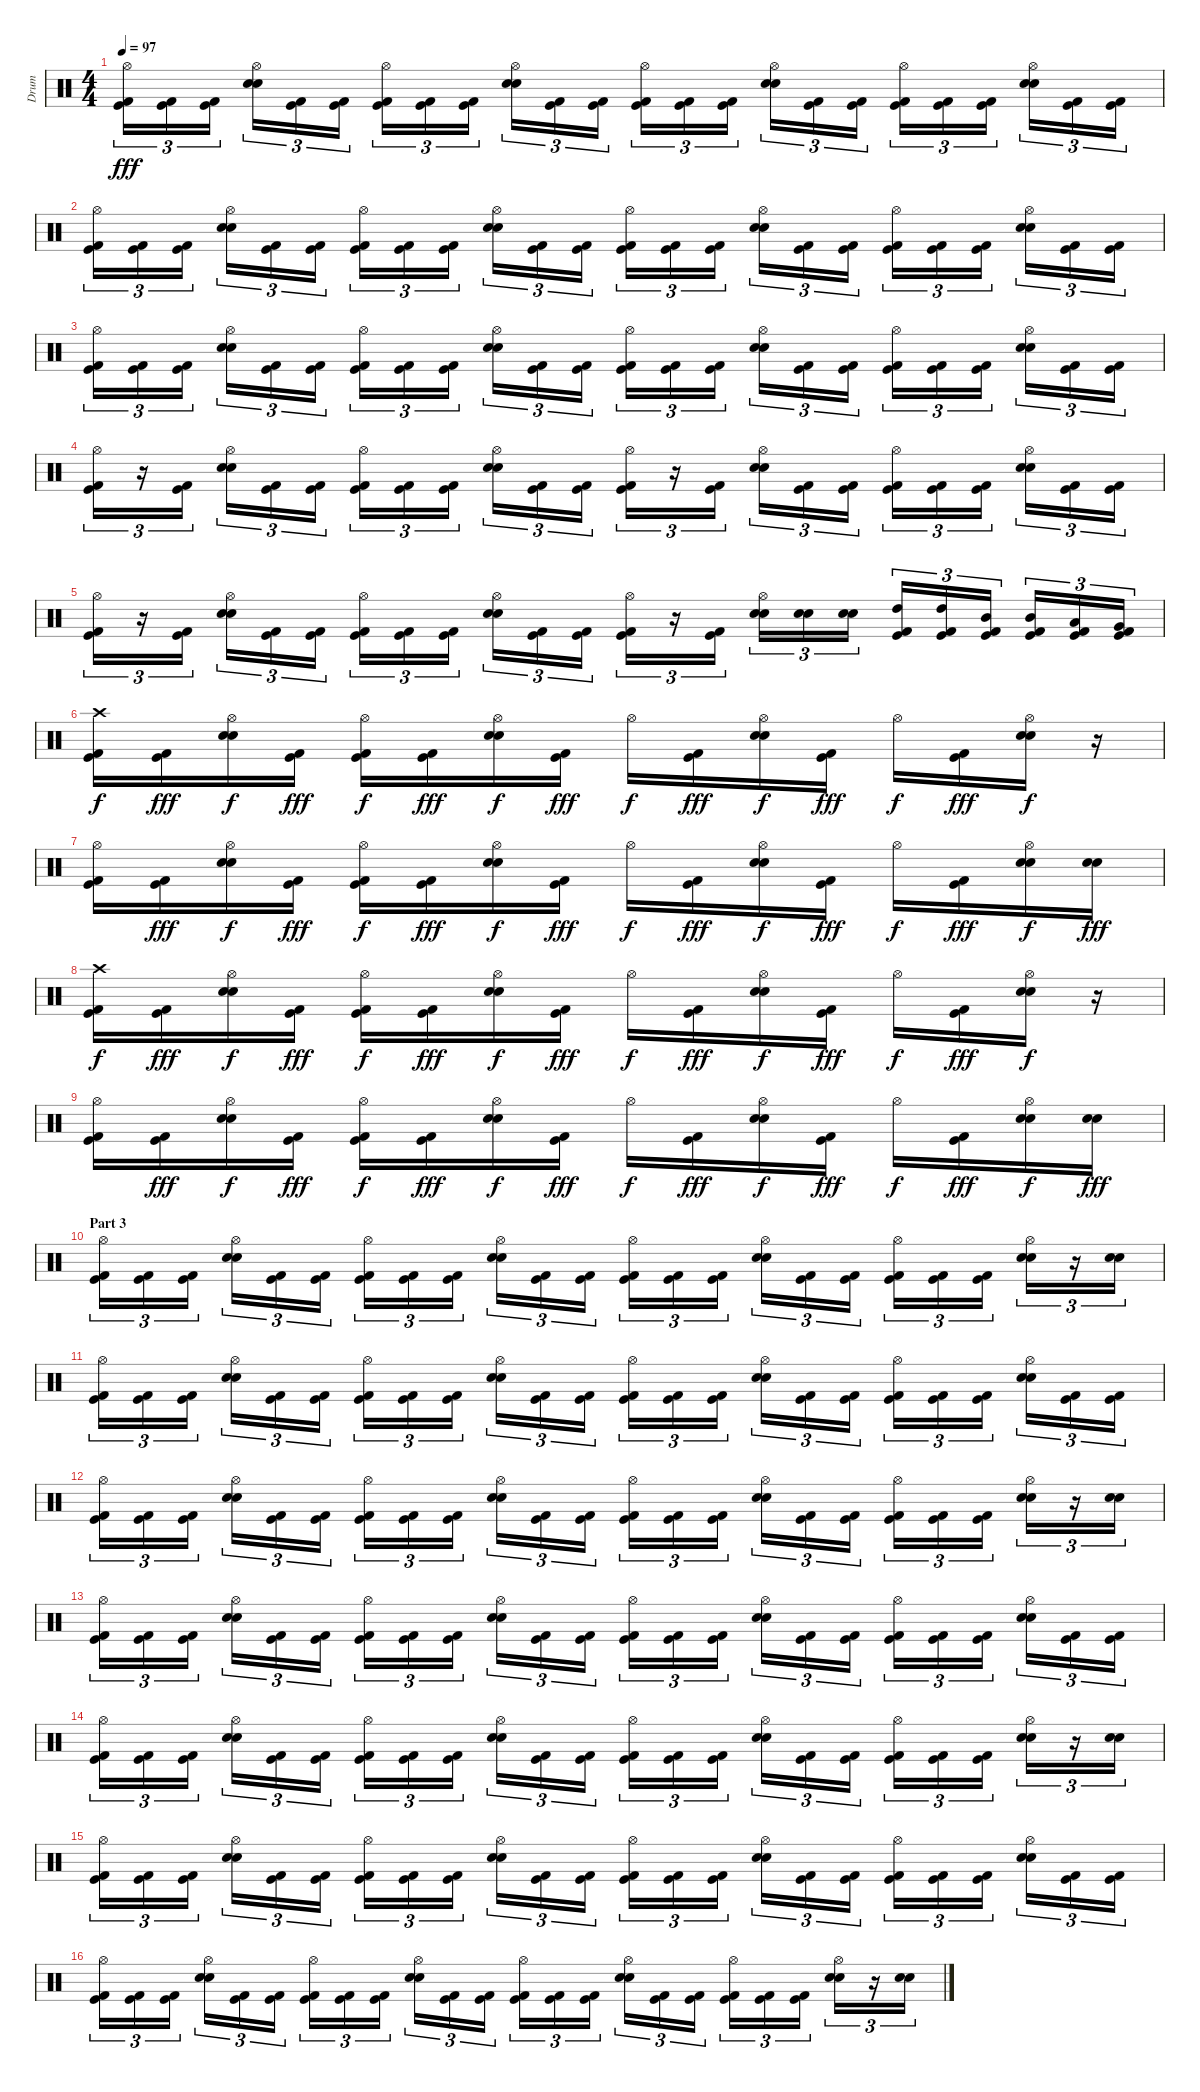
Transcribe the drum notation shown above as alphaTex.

\track ("Drum" "Drum") {instrument percussion}
\staff {score}
\articulation defaults
\ts (4 4)
\tempo 97
\clef neutral
\ks c
("Hi-Hat (open)" "Kick (hit)" "Kick (hit) 2").16{tu (3 2) dy fff} ("Kick (hit)" "Kick (hit) 2").16{tu (3 2)} ("Kick (hit)" "Kick (hit) 2").16{tu (3 2)} ("Hi-Hat (open)" "Electric Snare (hit)" "Snare (hit) 2").16{tu (3 2)} ("Kick (hit)" "Kick (hit) 2").16{tu (3 2)} ("Kick (hit)" "Kick (hit) 2").16{tu (3 2)} ("Hi-Hat (open)" "Kick (hit)" "Kick (hit) 2").16{tu (3 2)} ("Kick (hit)" "Kick (hit) 2").16{tu (3 2)} ("Kick (hit)" "Kick (hit) 2").16{tu (3 2)} ("Hi-Hat (open)" "Electric Snare (hit)" "Snare (hit) 2").16{tu (3 2)} ("Kick (hit)" "Kick (hit) 2").16{tu (3 2)} ("Kick (hit)" "Kick (hit) 2").16{tu (3 2)} ("Hi-Hat (open)" "Kick (hit)" "Kick (hit) 2").16{tu (3 2)} ("Kick (hit)" "Kick (hit) 2").16{tu (3 2)} ("Kick (hit)" "Kick (hit) 2").16{tu (3 2)} ("Hi-Hat (open)" "Electric Snare (hit)" "Snare (hit) 2").16{tu (3 2)} ("Kick (hit)" "Kick (hit) 2").16{tu (3 2)} ("Kick (hit)" "Kick (hit) 2").16{tu (3 2)} ("Hi-Hat (open)" "Kick (hit)" "Kick (hit) 2").16{tu (3 2)} ("Kick (hit)" "Kick (hit) 2").16{tu (3 2)} ("Kick (hit)" "Kick (hit) 2").16{tu (3 2)} ("Hi-Hat (open)" "Electric Snare (hit)" "Snare (hit) 2").16{tu (3 2)} ("Kick (hit)" "Kick (hit) 2").16{tu (3 2)} ("Kick (hit)" "Kick (hit) 2").16{tu (3 2)} |
("Hi-Hat (open)" "Kick (hit)" "Kick (hit) 2").16{tu (3 2)} ("Kick (hit)" "Kick (hit) 2").16{tu (3 2)} ("Kick (hit)" "Kick (hit) 2").16{tu (3 2)} ("Hi-Hat (open)" "Electric Snare (hit)" "Snare (hit) 2").16{tu (3 2)} ("Kick (hit)" "Kick (hit) 2").16{tu (3 2)} ("Kick (hit)" "Kick (hit) 2").16{tu (3 2)} ("Hi-Hat (open)" "Kick (hit)" "Kick (hit) 2").16{tu (3 2)} ("Kick (hit)" "Kick (hit) 2").16{tu (3 2)} ("Kick (hit)" "Kick (hit) 2").16{tu (3 2)} ("Hi-Hat (open)" "Electric Snare (hit)" "Snare (hit) 2").16{tu (3 2)} ("Kick (hit)" "Kick (hit) 2").16{tu (3 2)} ("Kick (hit)" "Kick (hit) 2").16{tu (3 2)} ("Hi-Hat (open)" "Kick (hit)" "Kick (hit) 2").16{tu (3 2)} ("Kick (hit)" "Kick (hit) 2").16{tu (3 2)} ("Kick (hit)" "Kick (hit) 2").16{tu (3 2)} ("Hi-Hat (open)" "Electric Snare (hit)" "Snare (hit) 2").16{tu (3 2)} ("Kick (hit)" "Kick (hit) 2").16{tu (3 2)} ("Kick (hit)" "Kick (hit) 2").16{tu (3 2)} ("Hi-Hat (open)" "Kick (hit)" "Kick (hit) 2").16{tu (3 2)} ("Kick (hit)" "Kick (hit) 2").16{tu (3 2)} ("Kick (hit)" "Kick (hit) 2").16{tu (3 2)} ("Hi-Hat (open)" "Electric Snare (hit)" "Snare (hit) 2").16{tu (3 2)} ("Kick (hit)" "Kick (hit) 2").16{tu (3 2)} ("Kick (hit)" "Kick (hit) 2").16{tu (3 2)} |
("Hi-Hat (open)" "Kick (hit)" "Kick (hit) 2").16{tu (3 2)} ("Kick (hit)" "Kick (hit) 2").16{tu (3 2)} ("Kick (hit)" "Kick (hit) 2").16{tu (3 2)} ("Hi-Hat (open)" "Electric Snare (hit)" "Snare (hit) 2").16{tu (3 2)} ("Kick (hit)" "Kick (hit) 2").16{tu (3 2)} ("Kick (hit)" "Kick (hit) 2").16{tu (3 2)} ("Hi-Hat (open)" "Kick (hit)" "Kick (hit) 2").16{tu (3 2)} ("Kick (hit)" "Kick (hit) 2").16{tu (3 2)} ("Kick (hit)" "Kick (hit) 2").16{tu (3 2)} ("Hi-Hat (open)" "Electric Snare (hit)" "Snare (hit) 2").16{tu (3 2)} ("Kick (hit)" "Kick (hit) 2").16{tu (3 2)} ("Kick (hit)" "Kick (hit) 2").16{tu (3 2)} ("Hi-Hat (open)" "Kick (hit)" "Kick (hit) 2").16{tu (3 2)} ("Kick (hit)" "Kick (hit) 2").16{tu (3 2)} ("Kick (hit)" "Kick (hit) 2").16{tu (3 2)} ("Hi-Hat (open)" "Electric Snare (hit)" "Snare (hit) 2").16{tu (3 2)} ("Kick (hit)" "Kick (hit) 2").16{tu (3 2)} ("Kick (hit)" "Kick (hit) 2").16{tu (3 2)} ("Hi-Hat (open)" "Kick (hit)" "Kick (hit) 2").16{tu (3 2)} ("Kick (hit)" "Kick (hit) 2").16{tu (3 2)} ("Kick (hit)" "Kick (hit) 2").16{tu (3 2)} ("Hi-Hat (open)" "Electric Snare (hit)" "Snare (hit) 2").16{tu (3 2)} ("Kick (hit)" "Kick (hit) 2").16{tu (3 2)} ("Kick (hit)" "Kick (hit) 2").16{tu (3 2)} |
("Hi-Hat (open)" "Kick (hit)" "Kick (hit) 2").16{tu (3 2)} r.16{tu (3 2)} ("Kick (hit)" "Kick (hit) 2").16{tu (3 2)} ("Hi-Hat (open)" "Electric Snare (hit)" "Snare (hit) 2").16{tu (3 2)} ("Kick (hit)" "Kick (hit) 2").16{tu (3 2)} ("Kick (hit)" "Kick (hit) 2").16{tu (3 2)} ("Hi-Hat (open)" "Kick (hit)" "Kick (hit) 2").16{tu (3 2)} ("Kick (hit)" "Kick (hit) 2").16{tu (3 2)} ("Kick (hit)" "Kick (hit) 2").16{tu (3 2)} ("Hi-Hat (open)" "Electric Snare (hit)" "Snare (hit) 2").16{tu (3 2)} ("Kick (hit)" "Kick (hit) 2").16{tu (3 2)} ("Kick (hit)" "Kick (hit) 2").16{tu (3 2)} ("Hi-Hat (open)" "Kick (hit)" "Kick (hit) 2").16{tu (3 2)} r.16{tu (3 2)} ("Kick (hit)" "Kick (hit) 2").16{tu (3 2)} ("Hi-Hat (open)" "Electric Snare (hit)" "Snare (hit) 2").16{tu (3 2)} ("Kick (hit)" "Kick (hit) 2").16{tu (3 2)} ("Kick (hit)" "Kick (hit) 2").16{tu (3 2)} ("Hi-Hat (open)" "Kick (hit)" "Kick (hit) 2").16{tu (3 2)} ("Kick (hit)" "Kick (hit) 2").16{tu (3 2)} ("Kick (hit)" "Kick (hit) 2").16{tu (3 2)} ("Hi-Hat (open)" "Electric Snare (hit)" "Snare (hit) 2").16{tu (3 2)} ("Kick (hit)" "Kick (hit) 2").16{tu (3 2)} ("Kick (hit)" "Kick (hit) 2").16{tu (3 2)} |
("Hi-Hat (open)" "Kick (hit)" "Kick (hit) 2").16{tu (3 2)} r.16{tu (3 2)} ("Kick (hit)" "Kick (hit) 2").16{tu (3 2)} ("Hi-Hat (open)" "Electric Snare (hit)" "Snare (hit) 2").16{tu (3 2)} ("Kick (hit)" "Kick (hit) 2").16{tu (3 2)} ("Kick (hit)" "Kick (hit) 2").16{tu (3 2)} ("Hi-Hat (open)" "Kick (hit)" "Kick (hit) 2").16{tu (3 2)} ("Kick (hit)" "Kick (hit) 2").16{tu (3 2)} ("Kick (hit)" "Kick (hit) 2").16{tu (3 2)} ("Hi-Hat (open)" "Electric Snare (hit)" "Snare (hit) 2").16{tu (3 2)} ("Kick (hit)" "Kick (hit) 2").16{tu (3 2)} ("Kick (hit)" "Kick (hit) 2").16{tu (3 2)} ("Hi-Hat (open)" "Kick (hit)" "Kick (hit) 2").16{tu (3 2)} r.16{tu (3 2)} ("Kick (hit)" "Kick (hit) 2").16{tu (3 2)} ("Hi-Hat (open)" "Electric Snare (hit)" "Snare (hit) 2").16{tu (3 2)} ("Electric Snare (hit)" "Snare (hit) 2").16{tu (3 2)} ("Electric Snare (hit)" "Snare (hit) 2").16{tu (3 2)} ("High Tom (hit)" "Kick (hit)" "Kick (hit) 2").16{tu (3 2)} ("High Tom (hit)" "Kick (hit)" "Kick (hit) 2").16{tu (3 2)} ("Mid Tom (hit)" "Kick (hit)" "Kick (hit) 2").16{tu (3 2)} ("Mid Tom (hit)" "Kick (hit)" "Kick (hit) 2").16{tu (3 2)} ("Low Tom (hit)" "Kick (hit)" "Kick (hit) 2").16{tu (3 2)} ("Very Low Tom (hit)" "Kick (hit)" "Kick (hit) 2").16{tu (3 2)} |
("Crash high (hit)" "Kick (hit)" "Kick (hit) 2").16{dy f} ("Kick (hit)" "Kick (hit) 2").16{dy fff} ("Hi-Hat (open)" "Electric Snare (hit)" "Snare (hit) 2").16{dy f} ("Kick (hit)" "Kick (hit) 2").16{dy fff} ("Hi-Hat (open)" "Kick (hit)" "Kick (hit) 2").16{dy f} ("Kick (hit)" "Kick (hit) 2").16{dy fff} ("Hi-Hat (open)" "Electric Snare (hit)" "Snare (hit) 2").16{dy f} ("Kick (hit)" "Kick (hit) 2").16{dy fff} "Hi-Hat (open)".16{dy f} ("Kick (hit)" "Kick (hit) 2").16{dy fff} ("Hi-Hat (open)" "Electric Snare (hit)" "Snare (hit) 2").16{dy f} ("Kick (hit)" "Kick (hit) 2").16{dy fff} "Hi-Hat (open)".16{dy f} ("Kick (hit)" "Kick (hit) 2").16{dy fff} ("Hi-Hat (open)" "Electric Snare (hit)" "Snare (hit) 2").16{dy f} r.16 |
("Hi-Hat (open)" "Kick (hit)" "Kick (hit) 2").16 ("Kick (hit)" "Kick (hit) 2").16{dy fff} ("Hi-Hat (open)" "Electric Snare (hit)" "Snare (hit) 2").16{dy f} ("Kick (hit)" "Kick (hit) 2").16{dy fff} ("Hi-Hat (open)" "Kick (hit)" "Kick (hit) 2").16{dy f} ("Kick (hit)" "Kick (hit) 2").16{dy fff} ("Hi-Hat (open)" "Electric Snare (hit)" "Snare (hit) 2").16{dy f} ("Kick (hit)" "Kick (hit) 2").16{dy fff} "Hi-Hat (open)".16{dy f} ("Kick (hit)" "Kick (hit) 2").16{dy fff} ("Hi-Hat (open)" "Electric Snare (hit)" "Snare (hit) 2").16{dy f} ("Kick (hit)" "Kick (hit) 2").16{dy fff} "Hi-Hat (open)".16{dy f} ("Kick (hit)" "Kick (hit) 2").16{dy fff} ("Hi-Hat (open)" "Electric Snare (hit)" "Snare (hit) 2").16{dy f} ("Electric Snare (hit)" "Snare (hit) 2").16{dy fff} |
("Crash high (hit)" "Kick (hit)" "Kick (hit) 2").16{dy f} ("Kick (hit)" "Kick (hit) 2").16{dy fff} ("Hi-Hat (open)" "Electric Snare (hit)" "Snare (hit) 2").16{dy f} ("Kick (hit)" "Kick (hit) 2").16{dy fff} ("Hi-Hat (open)" "Kick (hit)" "Kick (hit) 2").16{dy f} ("Kick (hit)" "Kick (hit) 2").16{dy fff} ("Hi-Hat (open)" "Electric Snare (hit)" "Snare (hit) 2").16{dy f} ("Kick (hit)" "Kick (hit) 2").16{dy fff} "Hi-Hat (open)".16{dy f} ("Kick (hit)" "Kick (hit) 2").16{dy fff} ("Hi-Hat (open)" "Electric Snare (hit)" "Snare (hit) 2").16{dy f} ("Kick (hit)" "Kick (hit) 2").16{dy fff} "Hi-Hat (open)".16{dy f} ("Kick (hit)" "Kick (hit) 2").16{dy fff} ("Hi-Hat (open)" "Electric Snare (hit)" "Snare (hit) 2").16{dy f} r.16 |
("Hi-Hat (open)" "Kick (hit)" "Kick (hit) 2").16 ("Kick (hit)" "Kick (hit) 2").16{dy fff} ("Hi-Hat (open)" "Electric Snare (hit)" "Snare (hit) 2").16{dy f} ("Kick (hit)" "Kick (hit) 2").16{dy fff} ("Hi-Hat (open)" "Kick (hit)" "Kick (hit) 2").16{dy f} ("Kick (hit)" "Kick (hit) 2").16{dy fff} ("Hi-Hat (open)" "Electric Snare (hit)" "Snare (hit) 2").16{dy f} ("Kick (hit)" "Kick (hit) 2").16{dy fff} "Hi-Hat (open)".16{dy f} ("Kick (hit)" "Kick (hit) 2").16{dy fff} ("Hi-Hat (open)" "Electric Snare (hit)" "Snare (hit) 2").16{dy f} ("Kick (hit)" "Kick (hit) 2").16{dy fff} "Hi-Hat (open)".16{dy f} ("Kick (hit)" "Kick (hit) 2").16{dy fff} ("Hi-Hat (open)" "Electric Snare (hit)" "Snare (hit) 2").16{dy f} ("Electric Snare (hit)" "Snare (hit) 2").16{dy fff} |
\section ("" "Part 3")
("Hi-Hat (open)" "Kick (hit)" "Kick (hit) 2").16{tu (3 2)} ("Kick (hit)" "Kick (hit) 2").16{tu (3 2)} ("Kick (hit)" "Kick (hit) 2").16{tu (3 2)} ("Hi-Hat (open)" "Electric Snare (hit)" "Snare (hit) 2").16{tu (3 2)} ("Kick (hit)" "Kick (hit) 2").16{tu (3 2)} ("Kick (hit)" "Kick (hit) 2").16{tu (3 2)} ("Hi-Hat (open)" "Kick (hit)" "Kick (hit) 2").16{tu (3 2)} ("Kick (hit)" "Kick (hit) 2").16{tu (3 2)} ("Kick (hit)" "Kick (hit) 2").16{tu (3 2)} ("Hi-Hat (open)" "Electric Snare (hit)" "Snare (hit) 2").16{tu (3 2)} ("Kick (hit)" "Kick (hit) 2").16{tu (3 2)} ("Kick (hit)" "Kick (hit) 2").16{tu (3 2)} ("Hi-Hat (open)" "Kick (hit)" "Kick (hit) 2").16{tu (3 2)} ("Kick (hit)" "Kick (hit) 2").16{tu (3 2)} ("Kick (hit)" "Kick (hit) 2").16{tu (3 2)} ("Hi-Hat (open)" "Electric Snare (hit)" "Snare (hit) 2").16{tu (3 2)} ("Kick (hit)" "Kick (hit) 2").16{tu (3 2)} ("Kick (hit)" "Kick (hit) 2").16{tu (3 2)} ("Hi-Hat (open)" "Kick (hit)" "Kick (hit) 2").16{tu (3 2)} ("Kick (hit)" "Kick (hit) 2").16{tu (3 2)} ("Kick (hit)" "Kick (hit) 2").16{tu (3 2)} ("Hi-Hat (open)" "Electric Snare (hit)" "Snare (hit) 2").16{tu (3 2)} r.16{tu (3 2)} ("Electric Snare (hit)" "Snare (hit) 2").16{tu (3 2)} |
("Hi-Hat (open)" "Kick (hit)" "Kick (hit) 2").16{tu (3 2)} ("Kick (hit)" "Kick (hit) 2").16{tu (3 2)} ("Kick (hit)" "Kick (hit) 2").16{tu (3 2)} ("Hi-Hat (open)" "Electric Snare (hit)" "Snare (hit) 2").16{tu (3 2)} ("Kick (hit)" "Kick (hit) 2").16{tu (3 2)} ("Kick (hit)" "Kick (hit) 2").16{tu (3 2)} ("Hi-Hat (open)" "Kick (hit)" "Kick (hit) 2").16{tu (3 2)} ("Kick (hit)" "Kick (hit) 2").16{tu (3 2)} ("Kick (hit)" "Kick (hit) 2").16{tu (3 2)} ("Hi-Hat (open)" "Electric Snare (hit)" "Snare (hit) 2").16{tu (3 2)} ("Kick (hit)" "Kick (hit) 2").16{tu (3 2)} ("Kick (hit)" "Kick (hit) 2").16{tu (3 2)} ("Hi-Hat (open)" "Kick (hit)" "Kick (hit) 2").16{tu (3 2)} ("Kick (hit)" "Kick (hit) 2").16{tu (3 2)} ("Kick (hit)" "Kick (hit) 2").16{tu (3 2)} ("Hi-Hat (open)" "Electric Snare (hit)" "Snare (hit) 2").16{tu (3 2)} ("Kick (hit)" "Kick (hit) 2").16{tu (3 2)} ("Kick (hit)" "Kick (hit) 2").16{tu (3 2)} ("Hi-Hat (open)" "Kick (hit)" "Kick (hit) 2").16{tu (3 2)} ("Kick (hit)" "Kick (hit) 2").16{tu (3 2)} ("Kick (hit)" "Kick (hit) 2").16{tu (3 2)} ("Hi-Hat (open)" "Electric Snare (hit)" "Snare (hit) 2").16{tu (3 2)} ("Kick (hit)" "Kick (hit) 2").16{tu (3 2)} ("Kick (hit)" "Kick (hit) 2").16{tu (3 2)} |
("Hi-Hat (open)" "Kick (hit)" "Kick (hit) 2").16{tu (3 2)} ("Kick (hit)" "Kick (hit) 2").16{tu (3 2)} ("Kick (hit)" "Kick (hit) 2").16{tu (3 2)} ("Hi-Hat (open)" "Electric Snare (hit)" "Snare (hit) 2").16{tu (3 2)} ("Kick (hit)" "Kick (hit) 2").16{tu (3 2)} ("Kick (hit)" "Kick (hit) 2").16{tu (3 2)} ("Hi-Hat (open)" "Kick (hit)" "Kick (hit) 2").16{tu (3 2)} ("Kick (hit)" "Kick (hit) 2").16{tu (3 2)} ("Kick (hit)" "Kick (hit) 2").16{tu (3 2)} ("Hi-Hat (open)" "Electric Snare (hit)" "Snare (hit) 2").16{tu (3 2)} ("Kick (hit)" "Kick (hit) 2").16{tu (3 2)} ("Kick (hit)" "Kick (hit) 2").16{tu (3 2)} ("Hi-Hat (open)" "Kick (hit)" "Kick (hit) 2").16{tu (3 2)} ("Kick (hit)" "Kick (hit) 2").16{tu (3 2)} ("Kick (hit)" "Kick (hit) 2").16{tu (3 2)} ("Hi-Hat (open)" "Electric Snare (hit)" "Snare (hit) 2").16{tu (3 2)} ("Kick (hit)" "Kick (hit) 2").16{tu (3 2)} ("Kick (hit)" "Kick (hit) 2").16{tu (3 2)} ("Hi-Hat (open)" "Kick (hit)" "Kick (hit) 2").16{tu (3 2)} ("Kick (hit)" "Kick (hit) 2").16{tu (3 2)} ("Kick (hit)" "Kick (hit) 2").16{tu (3 2)} ("Hi-Hat (open)" "Electric Snare (hit)" "Snare (hit) 2").16{tu (3 2)} r.16{tu (3 2)} ("Electric Snare (hit)" "Snare (hit) 2").16{tu (3 2)} |
("Hi-Hat (open)" "Kick (hit)" "Kick (hit) 2").16{tu (3 2)} ("Kick (hit)" "Kick (hit) 2").16{tu (3 2)} ("Kick (hit)" "Kick (hit) 2").16{tu (3 2)} ("Hi-Hat (open)" "Electric Snare (hit)" "Snare (hit) 2").16{tu (3 2)} ("Kick (hit)" "Kick (hit) 2").16{tu (3 2)} ("Kick (hit)" "Kick (hit) 2").16{tu (3 2)} ("Hi-Hat (open)" "Kick (hit)" "Kick (hit) 2").16{tu (3 2)} ("Kick (hit)" "Kick (hit) 2").16{tu (3 2)} ("Kick (hit)" "Kick (hit) 2").16{tu (3 2)} ("Hi-Hat (open)" "Electric Snare (hit)" "Snare (hit) 2").16{tu (3 2)} ("Kick (hit)" "Kick (hit) 2").16{tu (3 2)} ("Kick (hit)" "Kick (hit) 2").16{tu (3 2)} ("Hi-Hat (open)" "Kick (hit)" "Kick (hit) 2").16{tu (3 2)} ("Kick (hit)" "Kick (hit) 2").16{tu (3 2)} ("Kick (hit)" "Kick (hit) 2").16{tu (3 2)} ("Hi-Hat (open)" "Electric Snare (hit)" "Snare (hit) 2").16{tu (3 2)} ("Kick (hit)" "Kick (hit) 2").16{tu (3 2)} ("Kick (hit)" "Kick (hit) 2").16{tu (3 2)} ("Hi-Hat (open)" "Kick (hit)" "Kick (hit) 2").16{tu (3 2)} ("Kick (hit)" "Kick (hit) 2").16{tu (3 2)} ("Kick (hit)" "Kick (hit) 2").16{tu (3 2)} ("Hi-Hat (open)" "Electric Snare (hit)" "Snare (hit) 2").16{tu (3 2)} ("Kick (hit)" "Kick (hit) 2").16{tu (3 2)} ("Kick (hit)" "Kick (hit) 2").16{tu (3 2)} |
("Hi-Hat (open)" "Kick (hit)" "Kick (hit) 2").16{tu (3 2)} ("Kick (hit)" "Kick (hit) 2").16{tu (3 2)} ("Kick (hit)" "Kick (hit) 2").16{tu (3 2)} ("Hi-Hat (open)" "Electric Snare (hit)" "Snare (hit) 2").16{tu (3 2)} ("Kick (hit)" "Kick (hit) 2").16{tu (3 2)} ("Kick (hit)" "Kick (hit) 2").16{tu (3 2)} ("Hi-Hat (open)" "Kick (hit)" "Kick (hit) 2").16{tu (3 2)} ("Kick (hit)" "Kick (hit) 2").16{tu (3 2)} ("Kick (hit)" "Kick (hit) 2").16{tu (3 2)} ("Hi-Hat (open)" "Electric Snare (hit)" "Snare (hit) 2").16{tu (3 2)} ("Kick (hit)" "Kick (hit) 2").16{tu (3 2)} ("Kick (hit)" "Kick (hit) 2").16{tu (3 2)} ("Hi-Hat (open)" "Kick (hit)" "Kick (hit) 2").16{tu (3 2)} ("Kick (hit)" "Kick (hit) 2").16{tu (3 2)} ("Kick (hit)" "Kick (hit) 2").16{tu (3 2)} ("Hi-Hat (open)" "Electric Snare (hit)" "Snare (hit) 2").16{tu (3 2)} ("Kick (hit)" "Kick (hit) 2").16{tu (3 2)} ("Kick (hit)" "Kick (hit) 2").16{tu (3 2)} ("Hi-Hat (open)" "Kick (hit)" "Kick (hit) 2").16{tu (3 2)} ("Kick (hit)" "Kick (hit) 2").16{tu (3 2)} ("Kick (hit)" "Kick (hit) 2").16{tu (3 2)} ("Hi-Hat (open)" "Electric Snare (hit)" "Snare (hit) 2").16{tu (3 2)} r.16{tu (3 2)} ("Electric Snare (hit)" "Snare (hit) 2").16{tu (3 2)} |
("Hi-Hat (open)" "Kick (hit)" "Kick (hit) 2").16{tu (3 2)} ("Kick (hit)" "Kick (hit) 2").16{tu (3 2)} ("Kick (hit)" "Kick (hit) 2").16{tu (3 2)} ("Hi-Hat (open)" "Electric Snare (hit)" "Snare (hit) 2").16{tu (3 2)} ("Kick (hit)" "Kick (hit) 2").16{tu (3 2)} ("Kick (hit)" "Kick (hit) 2").16{tu (3 2)} ("Hi-Hat (open)" "Kick (hit)" "Kick (hit) 2").16{tu (3 2)} ("Kick (hit)" "Kick (hit) 2").16{tu (3 2)} ("Kick (hit)" "Kick (hit) 2").16{tu (3 2)} ("Hi-Hat (open)" "Electric Snare (hit)" "Snare (hit) 2").16{tu (3 2)} ("Kick (hit)" "Kick (hit) 2").16{tu (3 2)} ("Kick (hit)" "Kick (hit) 2").16{tu (3 2)} ("Hi-Hat (open)" "Kick (hit)" "Kick (hit) 2").16{tu (3 2)} ("Kick (hit)" "Kick (hit) 2").16{tu (3 2)} ("Kick (hit)" "Kick (hit) 2").16{tu (3 2)} ("Hi-Hat (open)" "Electric Snare (hit)" "Snare (hit) 2").16{tu (3 2)} ("Kick (hit)" "Kick (hit) 2").16{tu (3 2)} ("Kick (hit)" "Kick (hit) 2").16{tu (3 2)} ("Hi-Hat (open)" "Kick (hit)" "Kick (hit) 2").16{tu (3 2)} ("Kick (hit)" "Kick (hit) 2").16{tu (3 2)} ("Kick (hit)" "Kick (hit) 2").16{tu (3 2)} ("Hi-Hat (open)" "Electric Snare (hit)" "Snare (hit) 2").16{tu (3 2)} ("Kick (hit)" "Kick (hit) 2").16{tu (3 2)} ("Kick (hit)" "Kick (hit) 2").16{tu (3 2)} |
("Hi-Hat (open)" "Kick (hit)" "Kick (hit) 2").16{tu (3 2)} ("Kick (hit)" "Kick (hit) 2").16{tu (3 2)} ("Kick (hit)" "Kick (hit) 2").16{tu (3 2)} ("Hi-Hat (open)" "Electric Snare (hit)" "Snare (hit) 2").16{tu (3 2)} ("Kick (hit)" "Kick (hit) 2").16{tu (3 2)} ("Kick (hit)" "Kick (hit) 2").16{tu (3 2)} ("Hi-Hat (open)" "Kick (hit)" "Kick (hit) 2").16{tu (3 2)} ("Kick (hit)" "Kick (hit) 2").16{tu (3 2)} ("Kick (hit)" "Kick (hit) 2").16{tu (3 2)} ("Hi-Hat (open)" "Electric Snare (hit)" "Snare (hit) 2").16{tu (3 2)} ("Kick (hit)" "Kick (hit) 2").16{tu (3 2)} ("Kick (hit)" "Kick (hit) 2").16{tu (3 2)} ("Hi-Hat (open)" "Kick (hit)" "Kick (hit) 2").16{tu (3 2)} ("Kick (hit)" "Kick (hit) 2").16{tu (3 2)} ("Kick (hit)" "Kick (hit) 2").16{tu (3 2)} ("Hi-Hat (open)" "Electric Snare (hit)" "Snare (hit) 2").16{tu (3 2)} ("Kick (hit)" "Kick (hit) 2").16{tu (3 2)} ("Kick (hit)" "Kick (hit) 2").16{tu (3 2)} ("Hi-Hat (open)" "Kick (hit)" "Kick (hit) 2").16{tu (3 2)} ("Kick (hit)" "Kick (hit) 2").16{tu (3 2)} ("Kick (hit)" "Kick (hit) 2").16{tu (3 2)} ("Hi-Hat (open)" "Electric Snare (hit)" "Snare (hit) 2").16{tu (3 2)} r.16{tu (3 2)} ("Electric Snare (hit)" "Snare (hit) 2").16{tu (3 2)}
